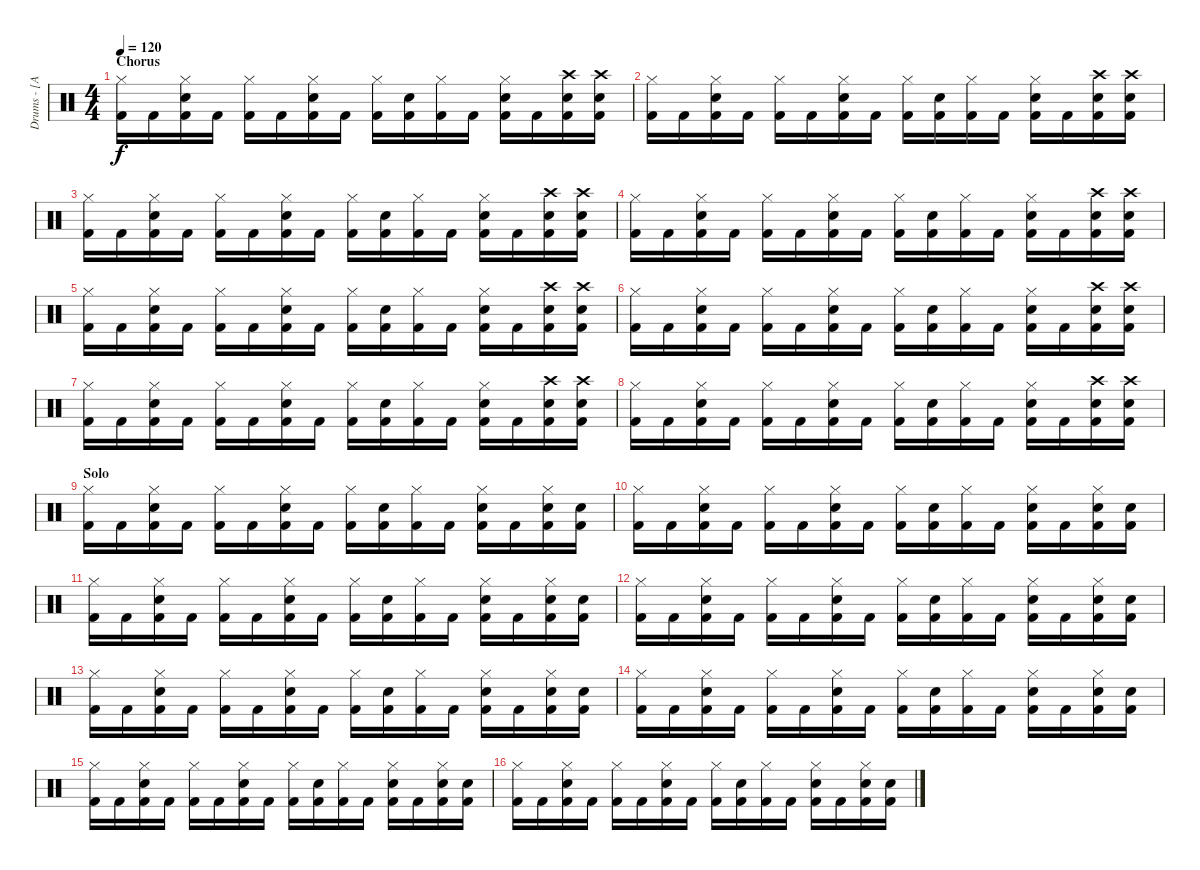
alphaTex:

\track ("Drums - [Anders]" "Drums - [A") {instrument percussion}
\staff {score}
\articulation defaults
\ts (4 4)
\section ("" "Chorus")
\tempo 120
\clef neutral
\ks c
("Hi-Hat (closed)" "Kick (hit) 2").16{dy f} "Kick (hit) 2".16 ("Hi-Hat (closed)" "Snare (hit) 2" "Kick (hit) 2").16 "Kick (hit) 2".16 ("Hi-Hat (closed)" "Kick (hit) 2").16 "Kick (hit) 2".16 ("Hi-Hat (closed)" "Snare (hit) 2" "Kick (hit) 2").16 "Kick (hit) 2".16 ("Hi-Hat (closed)" "Kick (hit) 2").16 ("Snare (hit) 2" "Kick (hit) 2").16 ("Hi-Hat (closed)" "Kick (hit) 2").16 "Kick (hit) 2".16 ("Hi-Hat (closed)" "Snare (hit) 2" "Kick (hit) 2").16 "Kick (hit) 2".16 ("Crash high (hit)" "Snare (hit) 2" "Kick (hit) 2").16 ("Crash high (hit)" "Snare (hit) 2" "Kick (hit) 2").16 |
("Hi-Hat (closed)" "Kick (hit) 2").16 "Kick (hit) 2".16 ("Hi-Hat (closed)" "Snare (hit) 2" "Kick (hit) 2").16 "Kick (hit) 2".16 ("Hi-Hat (closed)" "Kick (hit) 2").16 "Kick (hit) 2".16 ("Hi-Hat (closed)" "Snare (hit) 2" "Kick (hit) 2").16 "Kick (hit) 2".16 ("Hi-Hat (closed)" "Kick (hit) 2").16 ("Snare (hit) 2" "Kick (hit) 2").16 ("Hi-Hat (closed)" "Kick (hit) 2").16 "Kick (hit) 2".16 ("Hi-Hat (closed)" "Snare (hit) 2" "Kick (hit) 2").16 "Kick (hit) 2".16 ("Crash high (hit)" "Snare (hit) 2" "Kick (hit) 2").16 ("Crash high (hit)" "Snare (hit) 2" "Kick (hit) 2").16 |
("Hi-Hat (closed)" "Kick (hit) 2").16 "Kick (hit) 2".16 ("Hi-Hat (closed)" "Snare (hit) 2" "Kick (hit) 2").16 "Kick (hit) 2".16 ("Hi-Hat (closed)" "Kick (hit) 2").16 "Kick (hit) 2".16 ("Hi-Hat (closed)" "Snare (hit) 2" "Kick (hit) 2").16 "Kick (hit) 2".16 ("Hi-Hat (closed)" "Kick (hit) 2").16 ("Snare (hit) 2" "Kick (hit) 2").16 ("Hi-Hat (closed)" "Kick (hit) 2").16 "Kick (hit) 2".16 ("Hi-Hat (closed)" "Snare (hit) 2" "Kick (hit) 2").16 "Kick (hit) 2".16 ("Crash high (hit)" "Snare (hit) 2" "Kick (hit) 2").16 ("Crash high (hit)" "Snare (hit) 2" "Kick (hit) 2").16 |
("Hi-Hat (closed)" "Kick (hit) 2").16 "Kick (hit) 2".16 ("Hi-Hat (closed)" "Snare (hit) 2" "Kick (hit) 2").16 "Kick (hit) 2".16 ("Hi-Hat (closed)" "Kick (hit) 2").16 "Kick (hit) 2".16 ("Hi-Hat (closed)" "Snare (hit) 2" "Kick (hit) 2").16 "Kick (hit) 2".16 ("Hi-Hat (closed)" "Kick (hit) 2").16 ("Snare (hit) 2" "Kick (hit) 2").16 ("Hi-Hat (closed)" "Kick (hit) 2").16 "Kick (hit) 2".16 ("Hi-Hat (closed)" "Snare (hit) 2" "Kick (hit) 2").16 "Kick (hit) 2".16 ("Crash high (hit)" "Snare (hit) 2" "Kick (hit) 2").16 ("Crash high (hit)" "Snare (hit) 2" "Kick (hit) 2").16 |
("Hi-Hat (closed)" "Kick (hit) 2").16 "Kick (hit) 2".16 ("Hi-Hat (closed)" "Snare (hit) 2" "Kick (hit) 2").16 "Kick (hit) 2".16 ("Hi-Hat (closed)" "Kick (hit) 2").16 "Kick (hit) 2".16 ("Hi-Hat (closed)" "Snare (hit) 2" "Kick (hit) 2").16 "Kick (hit) 2".16 ("Hi-Hat (closed)" "Kick (hit) 2").16 ("Snare (hit) 2" "Kick (hit) 2").16 ("Hi-Hat (closed)" "Kick (hit) 2").16 "Kick (hit) 2".16 ("Hi-Hat (closed)" "Snare (hit) 2" "Kick (hit) 2").16 "Kick (hit) 2".16 ("Crash high (hit)" "Snare (hit) 2" "Kick (hit) 2").16 ("Crash high (hit)" "Snare (hit) 2" "Kick (hit) 2").16 |
("Hi-Hat (closed)" "Kick (hit) 2").16 "Kick (hit) 2".16 ("Hi-Hat (closed)" "Snare (hit) 2" "Kick (hit) 2").16 "Kick (hit) 2".16 ("Hi-Hat (closed)" "Kick (hit) 2").16 "Kick (hit) 2".16 ("Hi-Hat (closed)" "Snare (hit) 2" "Kick (hit) 2").16 "Kick (hit) 2".16 ("Hi-Hat (closed)" "Kick (hit) 2").16 ("Snare (hit) 2" "Kick (hit) 2").16 ("Hi-Hat (closed)" "Kick (hit) 2").16 "Kick (hit) 2".16 ("Hi-Hat (closed)" "Snare (hit) 2" "Kick (hit) 2").16 "Kick (hit) 2".16 ("Crash high (hit)" "Snare (hit) 2" "Kick (hit) 2").16 ("Crash high (hit)" "Snare (hit) 2" "Kick (hit) 2").16 |
("Hi-Hat (closed)" "Kick (hit) 2").16 "Kick (hit) 2".16 ("Hi-Hat (closed)" "Snare (hit) 2" "Kick (hit) 2").16 "Kick (hit) 2".16 ("Hi-Hat (closed)" "Kick (hit) 2").16 "Kick (hit) 2".16 ("Hi-Hat (closed)" "Snare (hit) 2" "Kick (hit) 2").16 "Kick (hit) 2".16 ("Hi-Hat (closed)" "Kick (hit) 2").16 ("Snare (hit) 2" "Kick (hit) 2").16 ("Hi-Hat (closed)" "Kick (hit) 2").16 "Kick (hit) 2".16 ("Hi-Hat (closed)" "Snare (hit) 2" "Kick (hit) 2").16 "Kick (hit) 2".16 ("Crash high (hit)" "Snare (hit) 2" "Kick (hit) 2").16 ("Crash high (hit)" "Snare (hit) 2" "Kick (hit) 2").16 |
("Hi-Hat (closed)" "Kick (hit) 2").16 "Kick (hit) 2".16 ("Hi-Hat (closed)" "Snare (hit) 2" "Kick (hit) 2").16 "Kick (hit) 2".16 ("Hi-Hat (closed)" "Kick (hit) 2").16 "Kick (hit) 2".16 ("Hi-Hat (closed)" "Snare (hit) 2" "Kick (hit) 2").16 "Kick (hit) 2".16 ("Hi-Hat (closed)" "Kick (hit) 2").16 ("Snare (hit) 2" "Kick (hit) 2").16 ("Hi-Hat (closed)" "Kick (hit) 2").16 "Kick (hit) 2".16 ("Hi-Hat (closed)" "Snare (hit) 2" "Kick (hit) 2").16 "Kick (hit) 2".16 ("Crash high (hit)" "Snare (hit) 2" "Kick (hit) 2").16 ("Crash high (hit)" "Snare (hit) 2" "Kick (hit) 2").16 |
\section ("" "Solo")
("Hi-Hat (closed)" "Kick (hit) 2").16 "Kick (hit) 2".16 ("Hi-Hat (closed)" "Snare (hit) 2" "Kick (hit) 2").16 "Kick (hit) 2".16 ("Hi-Hat (closed)" "Kick (hit) 2").16 "Kick (hit) 2".16 ("Hi-Hat (closed)" "Snare (hit) 2" "Kick (hit) 2").16 "Kick (hit) 2".16 ("Hi-Hat (closed)" "Kick (hit) 2").16 ("Snare (hit) 2" "Kick (hit) 2").16 ("Hi-Hat (closed)" "Kick (hit) 2").16 "Kick (hit) 2".16 ("Hi-Hat (closed)" "Snare (hit) 2" "Kick (hit) 2").16 "Kick (hit) 2".16 ("Hi-Hat (closed)" "Snare (hit) 2" "Kick (hit) 2").16 ("Snare (hit) 2" "Kick (hit) 2").16 |
("Hi-Hat (closed)" "Kick (hit) 2").16 "Kick (hit) 2".16 ("Hi-Hat (closed)" "Snare (hit) 2" "Kick (hit) 2").16 "Kick (hit) 2".16 ("Hi-Hat (closed)" "Kick (hit) 2").16 "Kick (hit) 2".16 ("Hi-Hat (closed)" "Snare (hit) 2" "Kick (hit) 2").16 "Kick (hit) 2".16 ("Hi-Hat (closed)" "Kick (hit) 2").16 ("Snare (hit) 2" "Kick (hit) 2").16 ("Hi-Hat (closed)" "Kick (hit) 2").16 "Kick (hit) 2".16 ("Hi-Hat (closed)" "Snare (hit) 2" "Kick (hit) 2").16 "Kick (hit) 2".16 ("Hi-Hat (closed)" "Snare (hit) 2" "Kick (hit) 2").16 ("Snare (hit) 2" "Kick (hit) 2").16 |
("Hi-Hat (closed)" "Kick (hit) 2").16 "Kick (hit) 2".16 ("Hi-Hat (closed)" "Snare (hit) 2" "Kick (hit) 2").16 "Kick (hit) 2".16 ("Hi-Hat (closed)" "Kick (hit) 2").16 "Kick (hit) 2".16 ("Hi-Hat (closed)" "Snare (hit) 2" "Kick (hit) 2").16 "Kick (hit) 2".16 ("Hi-Hat (closed)" "Kick (hit) 2").16 ("Snare (hit) 2" "Kick (hit) 2").16 ("Hi-Hat (closed)" "Kick (hit) 2").16 "Kick (hit) 2".16 ("Hi-Hat (closed)" "Snare (hit) 2" "Kick (hit) 2").16 "Kick (hit) 2".16 ("Hi-Hat (closed)" "Snare (hit) 2" "Kick (hit) 2").16 ("Snare (hit) 2" "Kick (hit) 2").16 |
("Hi-Hat (closed)" "Kick (hit) 2").16 "Kick (hit) 2".16 ("Hi-Hat (closed)" "Snare (hit) 2" "Kick (hit) 2").16 "Kick (hit) 2".16 ("Hi-Hat (closed)" "Kick (hit) 2").16 "Kick (hit) 2".16 ("Hi-Hat (closed)" "Snare (hit) 2" "Kick (hit) 2").16 "Kick (hit) 2".16 ("Hi-Hat (closed)" "Kick (hit) 2").16 ("Snare (hit) 2" "Kick (hit) 2").16 ("Hi-Hat (closed)" "Kick (hit) 2").16 "Kick (hit) 2".16 ("Hi-Hat (closed)" "Snare (hit) 2" "Kick (hit) 2").16 "Kick (hit) 2".16 ("Hi-Hat (closed)" "Snare (hit) 2" "Kick (hit) 2").16 ("Snare (hit) 2" "Kick (hit) 2").16 |
("Hi-Hat (closed)" "Kick (hit) 2").16 "Kick (hit) 2".16 ("Hi-Hat (closed)" "Snare (hit) 2" "Kick (hit) 2").16 "Kick (hit) 2".16 ("Hi-Hat (closed)" "Kick (hit) 2").16 "Kick (hit) 2".16 ("Hi-Hat (closed)" "Snare (hit) 2" "Kick (hit) 2").16 "Kick (hit) 2".16 ("Hi-Hat (closed)" "Kick (hit) 2").16 ("Snare (hit) 2" "Kick (hit) 2").16 ("Hi-Hat (closed)" "Kick (hit) 2").16 "Kick (hit) 2".16 ("Hi-Hat (closed)" "Snare (hit) 2" "Kick (hit) 2").16 "Kick (hit) 2".16 ("Hi-Hat (closed)" "Snare (hit) 2" "Kick (hit) 2").16 ("Snare (hit) 2" "Kick (hit) 2").16 |
("Hi-Hat (closed)" "Kick (hit) 2").16 "Kick (hit) 2".16 ("Hi-Hat (closed)" "Snare (hit) 2" "Kick (hit) 2").16 "Kick (hit) 2".16 ("Hi-Hat (closed)" "Kick (hit) 2").16 "Kick (hit) 2".16 ("Hi-Hat (closed)" "Snare (hit) 2" "Kick (hit) 2").16 "Kick (hit) 2".16 ("Hi-Hat (closed)" "Kick (hit) 2").16 ("Snare (hit) 2" "Kick (hit) 2").16 ("Hi-Hat (closed)" "Kick (hit) 2").16 "Kick (hit) 2".16 ("Hi-Hat (closed)" "Snare (hit) 2" "Kick (hit) 2").16 "Kick (hit) 2".16 ("Hi-Hat (closed)" "Snare (hit) 2" "Kick (hit) 2").16 ("Snare (hit) 2" "Kick (hit) 2").16 |
("Hi-Hat (closed)" "Kick (hit) 2").16 "Kick (hit) 2".16 ("Hi-Hat (closed)" "Snare (hit) 2" "Kick (hit) 2").16 "Kick (hit) 2".16 ("Hi-Hat (closed)" "Kick (hit) 2").16 "Kick (hit) 2".16 ("Hi-Hat (closed)" "Snare (hit) 2" "Kick (hit) 2").16 "Kick (hit) 2".16 ("Hi-Hat (closed)" "Kick (hit) 2").16 ("Snare (hit) 2" "Kick (hit) 2").16 ("Hi-Hat (closed)" "Kick (hit) 2").16 "Kick (hit) 2".16 ("Hi-Hat (closed)" "Snare (hit) 2" "Kick (hit) 2").16 "Kick (hit) 2".16 ("Hi-Hat (closed)" "Snare (hit) 2" "Kick (hit) 2").16 ("Snare (hit) 2" "Kick (hit) 2").16 |
("Hi-Hat (closed)" "Kick (hit) 2").16 "Kick (hit) 2".16 ("Hi-Hat (closed)" "Snare (hit) 2" "Kick (hit) 2").16 "Kick (hit) 2".16 ("Hi-Hat (closed)" "Kick (hit) 2").16 "Kick (hit) 2".16 ("Hi-Hat (closed)" "Snare (hit) 2" "Kick (hit) 2").16 "Kick (hit) 2".16 ("Hi-Hat (closed)" "Kick (hit) 2").16 ("Snare (hit) 2" "Kick (hit) 2").16 ("Hi-Hat (closed)" "Kick (hit) 2").16 "Kick (hit) 2".16 ("Hi-Hat (closed)" "Snare (hit) 2" "Kick (hit) 2").16 "Kick (hit) 2".16 ("Hi-Hat (closed)" "Snare (hit) 2" "Kick (hit) 2").16 ("Snare (hit) 2" "Kick (hit) 2").16
